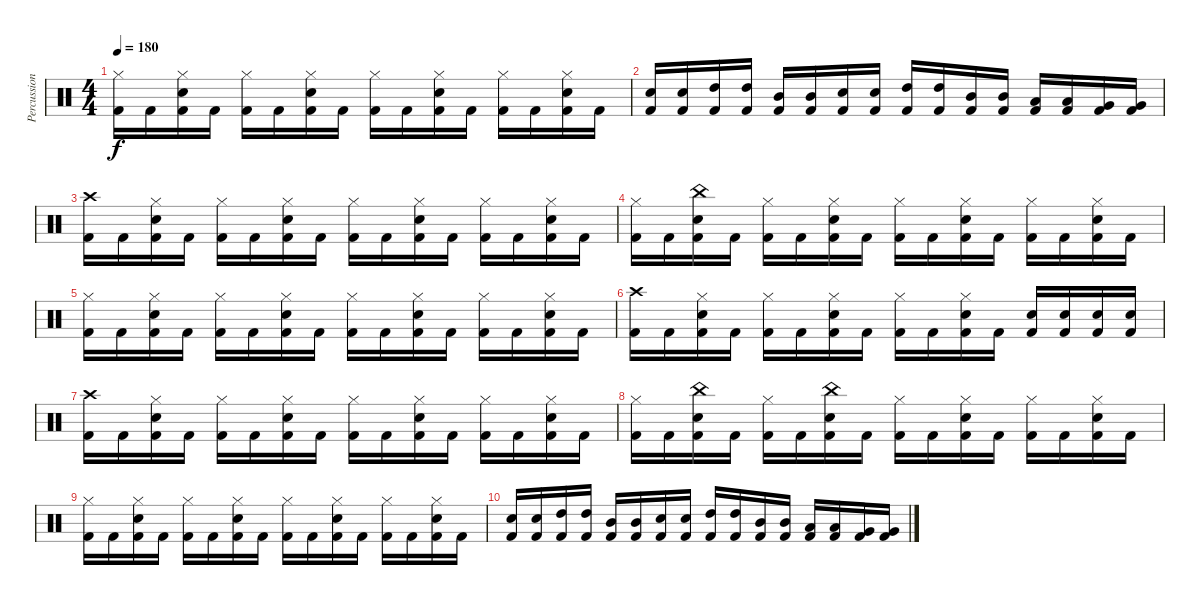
\track ("Percussion" "Percussion") {instrument percussion}
\staff {score}
\articulation defaults
\ts (4 4)
\tempo 180
\clef neutral
\ks c
("Hi-Hat (closed)" "Kick (hit) 2").16{dy f} "Kick (hit) 2".16 ("Hi-Hat (closed)" "Snare (hit) 2" "Kick (hit) 2").16 "Kick (hit) 2".16 ("Hi-Hat (closed)" "Kick (hit) 2").16 "Kick (hit) 2".16 ("Hi-Hat (closed)" "Snare (hit) 2" "Kick (hit) 2").16 "Kick (hit) 2".16 ("Hi-Hat (closed)" "Kick (hit) 2").16 "Kick (hit) 2".16 ("Hi-Hat (closed)" "Snare (hit) 2" "Kick (hit) 2").16 "Kick (hit) 2".16 ("Hi-Hat (closed)" "Kick (hit) 2").16 "Kick (hit) 2".16 ("Hi-Hat (closed)" "Snare (hit) 2" "Kick (hit) 2").16 "Kick (hit) 2".16 |
("Snare (hit) 2" "Kick (hit) 2").16 ("Snare (hit) 2" "Kick (hit) 2").16 ("High Tom (hit)" "Kick (hit) 2").16 ("High Tom (hit)" "Kick (hit) 2").16 ("Mid Tom (hit)" "Kick (hit) 2").16 ("Mid Tom (hit)" "Kick (hit) 2").16 ("Snare (hit) 2" "Kick (hit) 2").16 ("Snare (hit) 2" "Kick (hit) 2").16 ("High Tom (hit)" "Kick (hit) 2").16 ("High Tom (hit)" "Kick (hit) 2").16 ("Mid Tom (hit)" "Kick (hit) 2").16 ("Mid Tom (hit)" "Kick (hit) 2").16 ("Low Tom (hit)" "Kick (hit) 2").16 ("Low Tom (hit)" "Kick (hit) 2").16 ("Very Low Tom (hit)" "Kick (hit) 2").16 ("Very Low Tom (hit)" "Kick (hit) 2").16 |
("Crash high (hit)" "Kick (hit) 2").16{volume 12} "Kick (hit) 2".16 ("Hi-Hat (closed)" "Snare (hit) 2" "Kick (hit) 2").16 "Kick (hit) 2".16 ("Hi-Hat (closed)" "Kick (hit) 2").16{volume 11} "Kick (hit) 2".16 ("Hi-Hat (closed)" "Snare (hit) 2" "Kick (hit) 2").16 "Kick (hit) 2".16 ("Hi-Hat (closed)" "Kick (hit) 2").16{volume 10} "Kick (hit) 2".16 ("Hi-Hat (closed)" "Snare (hit) 2" "Kick (hit) 2").16 "Kick (hit) 2".16 ("Hi-Hat (closed)" "Kick (hit) 2").16{volume 9} "Kick (hit) 2".16 ("Hi-Hat (closed)" "Snare (hit) 2" "Kick (hit) 2").16 "Kick (hit) 2".16 |
("Hi-Hat (closed)" "Kick (hit) 2").16{volume 8} "Kick (hit) 2".16 ("China (hit)" "Snare (hit) 2" "Kick (hit) 2").16 "Kick (hit) 2".16 ("Hi-Hat (closed)" "Kick (hit) 2").16 "Kick (hit) 2".16 ("Hi-Hat (closed)" "Snare (hit) 2" "Kick (hit) 2").16 "Kick (hit) 2".16 ("Hi-Hat (closed)" "Kick (hit) 2").16{volume 7} "Kick (hit) 2".16 ("Hi-Hat (closed)" "Snare (hit) 2" "Kick (hit) 2").16 "Kick (hit) 2".16 ("Hi-Hat (closed)" "Kick (hit) 2").16 "Kick (hit) 2".16 ("Hi-Hat (closed)" "Snare (hit) 2" "Kick (hit) 2").16 "Kick (hit) 2".16 |
("Hi-Hat (closed)" "Kick (hit) 2").16{volume 6} "Kick (hit) 2".16 ("Hi-Hat (closed)" "Snare (hit) 2" "Kick (hit) 2").16 "Kick (hit) 2".16 ("Hi-Hat (closed)" "Kick (hit) 2").16 "Kick (hit) 2".16 ("Hi-Hat (closed)" "Snare (hit) 2" "Kick (hit) 2").16 "Kick (hit) 2".16 ("Hi-Hat (closed)" "Kick (hit) 2").16 "Kick (hit) 2".16 ("Hi-Hat (closed)" "Snare (hit) 2" "Kick (hit) 2").16 "Kick (hit) 2".16 ("Hi-Hat (closed)" "Kick (hit) 2").16 "Kick (hit) 2".16 ("Hi-Hat (closed)" "Snare (hit) 2" "Kick (hit) 2").16 "Kick (hit) 2".16 |
("Crash high (hit)" "Kick (hit) 2").16{volume 5} "Kick (hit) 2".16 ("Hi-Hat (closed)" "Snare (hit) 2" "Kick (hit) 2").16 "Kick (hit) 2".16 ("Hi-Hat (closed)" "Kick (hit) 2").16 "Kick (hit) 2".16 ("Hi-Hat (closed)" "Snare (hit) 2" "Kick (hit) 2").16 "Kick (hit) 2".16 ("Hi-Hat (closed)" "Kick (hit) 2").16 "Kick (hit) 2".16 ("Hi-Hat (closed)" "Snare (hit) 2" "Kick (hit) 2").16 "Kick (hit) 2".16 ("Snare (hit) 2" "Kick (hit) 2").16 ("Snare (hit) 2" "Kick (hit) 2").16 ("Snare (hit) 2" "Kick (hit) 2").16 ("Snare (hit) 2" "Kick (hit) 2").16 |
("Crash high (hit)" "Kick (hit) 2").16 "Kick (hit) 2".16 ("Hi-Hat (closed)" "Snare (hit) 2" "Kick (hit) 2").16 "Kick (hit) 2".16 ("Hi-Hat (closed)" "Kick (hit) 2").16 "Kick (hit) 2".16 ("Hi-Hat (closed)" "Snare (hit) 2" "Kick (hit) 2").16 "Kick (hit) 2".16 ("Hi-Hat (closed)" "Kick (hit) 2").16{volume 4} "Kick (hit) 2".16 ("Hi-Hat (closed)" "Snare (hit) 2" "Kick (hit) 2").16 "Kick (hit) 2".16 ("Hi-Hat (closed)" "Kick (hit) 2").16 "Kick (hit) 2".16 ("Hi-Hat (closed)" "Snare (hit) 2" "Kick (hit) 2").16 "Kick (hit) 2".16 |
("Hi-Hat (closed)" "Kick (hit) 2").16 "Kick (hit) 2".16 ("China (hit)" "Snare (hit) 2" "Kick (hit) 2").16 "Kick (hit) 2".16 ("Hi-Hat (closed)" "Kick (hit) 2").16 "Kick (hit) 2".16 ("China (hit)" "Snare (hit) 2" "Kick (hit) 2").16 "Kick (hit) 2".16 ("Hi-Hat (closed)" "Kick (hit) 2").16{volume 3} "Kick (hit) 2".16 ("Hi-Hat (closed)" "Snare (hit) 2" "Kick (hit) 2").16 "Kick (hit) 2".16 ("Hi-Hat (closed)" "Kick (hit) 2").16 "Kick (hit) 2".16 ("Hi-Hat (closed)" "Snare (hit) 2" "Kick (hit) 2").16 "Kick (hit) 2".16 |
("Hi-Hat (closed)" "Kick (hit) 2").16 "Kick (hit) 2".16 ("Hi-Hat (closed)" "Snare (hit) 2" "Kick (hit) 2").16 "Kick (hit) 2".16 ("Hi-Hat (closed)" "Kick (hit) 2").16 "Kick (hit) 2".16 ("Hi-Hat (closed)" "Snare (hit) 2" "Kick (hit) 2").16 "Kick (hit) 2".16 ("Hi-Hat (closed)" "Kick (hit) 2").16{volume 2} "Kick (hit) 2".16 ("Hi-Hat (closed)" "Snare (hit) 2" "Kick (hit) 2").16 "Kick (hit) 2".16 ("Hi-Hat (closed)" "Kick (hit) 2").16 "Kick (hit) 2".16 ("Hi-Hat (closed)" "Snare (hit) 2" "Kick (hit) 2").16 "Kick (hit) 2".16 |
("Snare (hit) 2" "Kick (hit) 2").16{volume 1} ("Snare (hit) 2" "Kick (hit) 2").16 ("High Tom (hit)" "Kick (hit) 2").16 ("High Tom (hit)" "Kick (hit) 2").16 ("Mid Tom (hit)" "Kick (hit) 2").16 ("Mid Tom (hit)" "Kick (hit) 2").16 ("Snare (hit) 2" "Kick (hit) 2").16 ("Snare (hit) 2" "Kick (hit) 2").16 ("High Tom (hit)" "Kick (hit) 2").16 ("High Tom (hit)" "Kick (hit) 2").16 ("Mid Tom (hit)" "Kick (hit) 2").16 ("Mid Tom (hit)" "Kick (hit) 2").16 ("Low Tom (hit)" "Kick (hit) 2").16 ("Low Tom (hit)" "Kick (hit) 2").16 ("Very Low Tom (hit)" "Kick (hit) 2").16 ("Very Low Tom (hit)" "Kick (hit) 2").16
